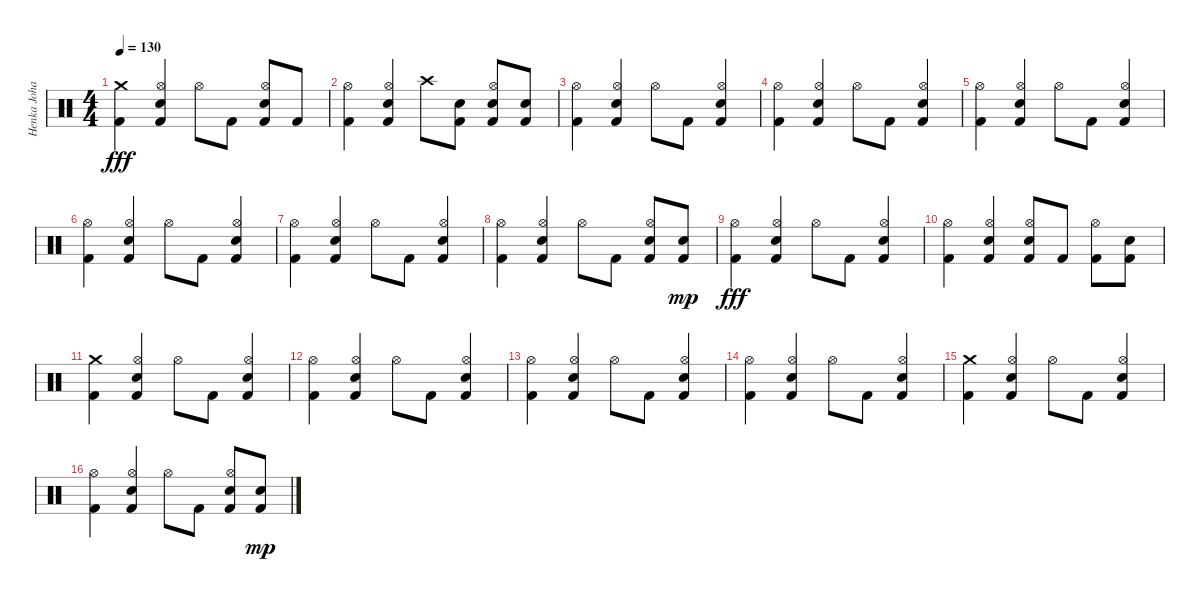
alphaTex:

\track ("Henka Johansson" "Henka Joha") {instrument percussion}
\staff {score}
\articulation defaults
\ts (4 4)
\tempo 130
\clef neutral
\ks c
("Crash medium (hit)" "Kick (hit) 2").4{dy fff} ("Hi-Hat (open)" "Electric Snare (hit)" "Kick (hit) 2").4 "Hi-Hat (open)".8 "Kick (hit) 2".8 ("Hi-Hat (open)" "Electric Snare (hit)" "Kick (hit) 2").8 "Kick (hit) 2".8 |
("Hi-Hat (open)" "Kick (hit) 2").4 ("Hi-Hat (open)" "Electric Snare (hit)" "Kick (hit) 2").4 "Crash high (hit)".8 ("Electric Snare (hit)" "Kick (hit) 2").8 ("Hi-Hat (open)" "Electric Snare (hit)" "Kick (hit) 2").8 ("Electric Snare (hit)" "Kick (hit) 2").8 |
("Hi-Hat (open)" "Kick (hit) 2").4 ("Hi-Hat (open)" "Electric Snare (hit)" "Kick (hit) 2").4 "Hi-Hat (open)".8 "Kick (hit) 2".8 ("Hi-Hat (open)" "Electric Snare (hit)" "Kick (hit) 2").4 |
("Hi-Hat (open)" "Kick (hit) 2").4 ("Hi-Hat (open)" "Electric Snare (hit)" "Kick (hit) 2").4 "Hi-Hat (open)".8 "Kick (hit) 2".8 ("Hi-Hat (open)" "Electric Snare (hit)" "Kick (hit) 2").4 |
("Hi-Hat (open)" "Kick (hit) 2").4 ("Hi-Hat (open)" "Electric Snare (hit)" "Kick (hit) 2").4 "Hi-Hat (open)".8 "Kick (hit) 2".8 ("Hi-Hat (open)" "Electric Snare (hit)" "Kick (hit) 2").4 |
("Hi-Hat (open)" "Kick (hit) 2").4 ("Hi-Hat (open)" "Electric Snare (hit)" "Kick (hit) 2").4 "Hi-Hat (open)".8 "Kick (hit) 2".8 ("Hi-Hat (open)" "Electric Snare (hit)" "Kick (hit) 2").4 |
("Hi-Hat (open)" "Kick (hit) 2").4 ("Hi-Hat (open)" "Electric Snare (hit)" "Kick (hit) 2").4 "Hi-Hat (open)".8 "Kick (hit) 2".8 ("Hi-Hat (open)" "Electric Snare (hit)" "Kick (hit) 2").4 |
("Hi-Hat (open)" "Kick (hit) 2").4 ("Hi-Hat (open)" "Electric Snare (hit)" "Kick (hit) 2").4 "Hi-Hat (open)".8 "Kick (hit) 2".8 ("Hi-Hat (open)" "Electric Snare (hit)" "Kick (hit) 2").8 ("Electric Snare (hit)" "Kick (hit) 2").8{dy mp} |
("Hi-Hat (open)" "Kick (hit) 2").4{dy fff} ("Hi-Hat (open)" "Electric Snare (hit)" "Kick (hit) 2").4 "Hi-Hat (open)".8 "Kick (hit) 2".8 ("Hi-Hat (open)" "Electric Snare (hit)" "Kick (hit) 2").4 |
("Hi-Hat (open)" "Kick (hit) 2").4 ("Hi-Hat (open)" "Electric Snare (hit)" "Kick (hit) 2").4 ("Hi-Hat (open)" "Electric Snare (hit)" "Kick (hit) 2").8 "Kick (hit) 2".8 ("Hi-Hat (open)" "Kick (hit) 2").8 ("Electric Snare (hit)" "Kick (hit) 2").8 |
("Crash medium (hit)" "Kick (hit) 2").4 ("Hi-Hat (open)" "Electric Snare (hit)" "Kick (hit) 2").4 "Hi-Hat (open)".8 "Kick (hit) 2".8 ("Hi-Hat (open)" "Electric Snare (hit)" "Kick (hit) 2").4 |
("Hi-Hat (open)" "Kick (hit) 2").4 ("Hi-Hat (open)" "Electric Snare (hit)" "Kick (hit) 2").4 "Hi-Hat (open)".8 "Kick (hit) 2".8 ("Hi-Hat (open)" "Electric Snare (hit)" "Kick (hit) 2").4 |
("Hi-Hat (open)" "Kick (hit) 2").4 ("Hi-Hat (open)" "Electric Snare (hit)" "Kick (hit) 2").4 "Hi-Hat (open)".8 "Kick (hit) 2".8 ("Hi-Hat (open)" "Electric Snare (hit)" "Kick (hit) 2").4 |
("Hi-Hat (open)" "Kick (hit) 2").4 ("Hi-Hat (open)" "Electric Snare (hit)" "Kick (hit) 2").4 "Hi-Hat (open)".8 "Kick (hit) 2".8 ("Hi-Hat (open)" "Electric Snare (hit)" "Kick (hit) 2").4 |
("Crash medium (hit)" "Kick (hit) 2").4 ("Hi-Hat (open)" "Electric Snare (hit)" "Kick (hit) 2").4 "Hi-Hat (open)".8 "Kick (hit) 2".8 ("Hi-Hat (open)" "Electric Snare (hit)" "Kick (hit) 2").4 |
("Hi-Hat (open)" "Kick (hit) 2").4 ("Hi-Hat (open)" "Electric Snare (hit)" "Kick (hit) 2").4 "Hi-Hat (open)".8 "Kick (hit) 2".8 ("Hi-Hat (open)" "Electric Snare (hit)" "Kick (hit) 2").8 ("Electric Snare (hit)" "Kick (hit) 2").8{dy mp}
